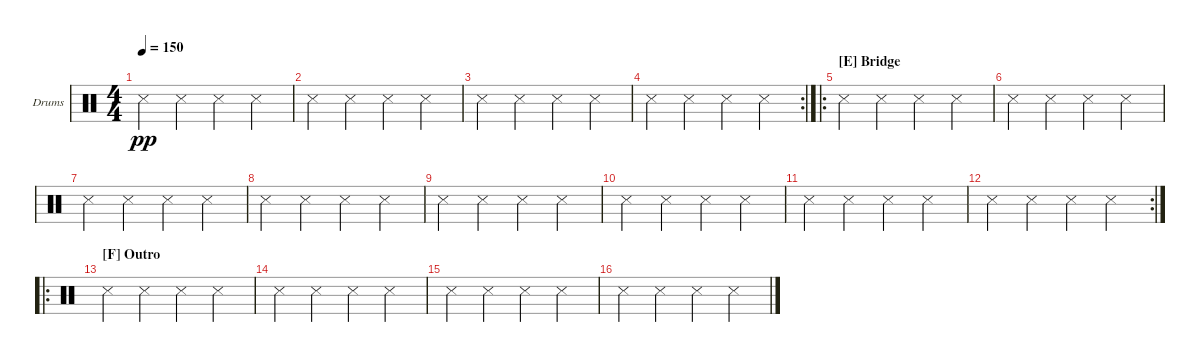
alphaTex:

\defaultSystemsLayout 4
\bracketExtendMode groupsimilarinstruments
\firstSystemTrackNameOrientation horizontal
\otherSystemsTrackNameOrientation horizontal
\track ("Drumkit" "Drums") {instrument percussion}
\staff {score}
\articulation defaults
\ts (4 4)
\tempo 150
\clef neutral
\scale
0.243478
\ks c "Snare (side stick) 3".4{dy pp} "Snare (side stick) 3".4 "Snare (side stick) 3".4 "Snare (side stick) 3".4
|
\scale
0.243478 "Snare (side stick) 3".4 "Snare (side stick) 3".4 "Snare (side stick) 3".4 "Snare (side stick) 3".4 |
\scale
0.243478 "Snare (side stick) 3".4 "Snare (side stick) 3".4 "Snare (side stick) 3".4 "Snare (side stick) 3".4 |
\rc 2
\scale
0.269565 "Snare (side stick) 3".4 "Snare (side stick) 3".4 "Snare (side stick) 3".4 "Snare (side stick) 3".4 |
\ro
\section ("E" "Bridge")
\scale
0.288136 "Snare (side stick) 3".4 "Snare (side stick) 3".4 "Snare (side stick) 3".4 "Snare (side stick) 3".4 |
\scale
0.237288 "Snare (side stick) 3".4 "Snare (side stick) 3".4 "Snare (side stick) 3".4 "Snare (side stick) 3".4 |
\scale
0.237288 "Snare (side stick) 3".4 "Snare (side stick) 3".4 "Snare (side stick) 3".4 "Snare (side stick) 3".4 |
\scale
0.237288 "Snare (side stick) 3".4 "Snare (side stick) 3".4 "Snare (side stick) 3".4 "Snare (side stick) 3".4 |
\scale
0.243478 "Snare (side stick) 3".4 "Snare (side stick) 3".4 "Snare (side stick) 3".4 "Snare (side stick) 3".4 |
\scale
0.243478 "Snare (side stick) 3".4 "Snare (side stick) 3".4 "Snare (side stick) 3".4 "Snare (side stick) 3".4 |
\scale
0.243478 "Snare (side stick) 3".4 "Snare (side stick) 3".4 "Snare (side stick) 3".4 "Snare (side stick) 3".4 |
\rc 2
\scale
0.269565 "Snare (side stick) 3".4 "Snare (side stick) 3".4 "Snare (side stick) 3".4 "Snare (side stick) 3".4 |
\ro
\section ("F" "Outro")
\scale
0.288136 "Snare (side stick) 3".4 "Snare (side stick) 3".4 "Snare (side stick) 3".4 "Snare (side stick) 3".4 |
\scale
0.237288 "Snare (side stick) 3".4 "Snare (side stick) 3".4 "Snare (side stick) 3".4 "Snare (side stick) 3".4 |
\scale
0.237288 "Snare (side stick) 3".4 "Snare (side stick) 3".4 "Snare (side stick) 3".4 "Snare (side stick) 3".4 |
\scale
0.237288 "Snare (side stick) 3".4 "Snare (side stick) 3".4 "Snare (side stick) 3".4 "Snare (side stick) 3".4
